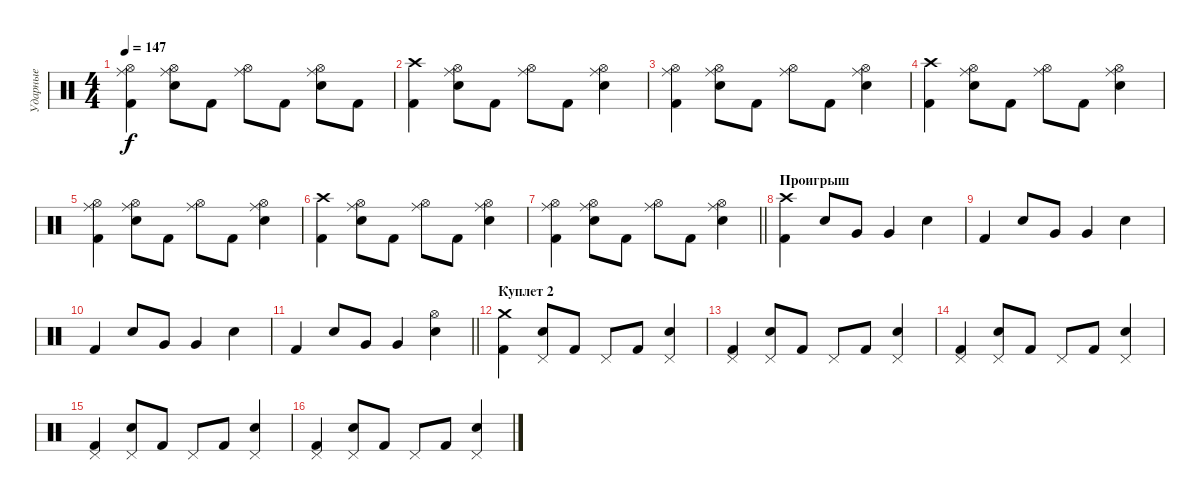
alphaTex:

\track ("Ударные" "Ударные") {instrument percussion}
\staff {score}
\articulation defaults
\ts (4 4)
\tempo 147
\clef neutral
\ks c
("Ride (middle)" "Hi-Hat (open)" "Kick (hit) 2").4{dy f} ("Ride (middle)" "Hi-Hat (open)" "Snare (hit) 2").8 "Kick (hit) 2".8 ("Ride (middle)" "Hi-Hat (open)").8 "Kick (hit) 2".8 ("Ride (middle)" "Hi-Hat (open)" "Snare (hit) 2").8 "Kick (hit) 2".8 |
("Crash high (hit)" "Kick (hit) 2").4 ("Ride (middle)" "Hi-Hat (open)" "Snare (hit) 2").8 "Kick (hit) 2".8 ("Ride (middle)" "Hi-Hat (open)").8 "Kick (hit) 2".8 ("Ride (middle)" "Hi-Hat (open)" "Snare (hit) 2").4 |
("Ride (middle)" "Hi-Hat (open)" "Kick (hit) 2").4 ("Ride (middle)" "Hi-Hat (open)" "Snare (hit) 2").8 "Kick (hit) 2".8 ("Ride (middle)" "Hi-Hat (open)").8 "Kick (hit) 2".8 ("Ride (middle)" "Hi-Hat (open)" "Snare (hit) 2").4 |
("Crash high (hit)" "Kick (hit) 2").4 ("Ride (middle)" "Hi-Hat (open)" "Snare (hit) 2").8 "Kick (hit) 2".8 ("Ride (middle)" "Hi-Hat (open)").8 "Kick (hit) 2".8 ("Ride (middle)" "Hi-Hat (open)" "Snare (hit) 2").4 |
("Ride (middle)" "Hi-Hat (open)" "Kick (hit) 2").4 ("Ride (middle)" "Hi-Hat (open)" "Snare (hit) 2").8 "Kick (hit) 2".8 ("Ride (middle)" "Hi-Hat (open)").8 "Kick (hit) 2".8 ("Ride (middle)" "Hi-Hat (open)" "Snare (hit) 2").4 |
("Crash high (hit)" "Kick (hit) 2").4 ("Ride (middle)" "Hi-Hat (open)" "Snare (hit) 2").8 "Kick (hit) 2".8 ("Ride (middle)" "Hi-Hat (open)").8 "Kick (hit) 2".8 ("Ride (middle)" "Hi-Hat (open)" "Snare (hit) 2").4 |
\barLineRight lightlight
("Ride (middle)" "Hi-Hat (open)" "Kick (hit) 2").4 ("Ride (middle)" "Hi-Hat (open)" "Snare (hit) 2").8 "Kick (hit) 2".8 ("Ride (middle)" "Hi-Hat (open)").8 "Kick (hit) 2".8 ("Ride (middle)" "Hi-Hat (open)" "Snare (hit) 2").4 |
\section ("" "Проигрыш")
("Crash high (hit)" "Kick (hit) 2").4 "Snare (hit) 2".8 "Very Low Tom (hit)".8 "Very Low Tom (hit)".4 "Snare (hit) 2".4 |
"Kick (hit) 2".4 "Snare (hit) 2".8 "Very Low Tom (hit)".8 "Very Low Tom (hit)".4 "Snare (hit) 2".4 |
"Kick (hit) 2".4 "Snare (hit) 2".8 "Very Low Tom (hit)".8 "Very Low Tom (hit)".4 "Snare (hit) 2".4 |
\barLineRight lightlight "Kick (hit) 2".4 "Snare (hit) 2".8 "Very Low Tom (hit)".8 "Very Low Tom (hit)".4
("Hi-Hat (open)" "Snare (hit) 2").4 |
\section ("" "Куплет 2")
("Crash medium (hit)" "Kick (hit) 2").4 ("Pedal Hi-Hat (hit)" "Snare (hit) 2").8 "Kick (hit) 2".8 "Pedal Hi-Hat (hit)".8 "Kick (hit) 2".8 ("Pedal Hi-Hat (hit)" "Snare (hit) 2").4 |
("Pedal Hi-Hat (hit)" "Kick (hit) 2").4 ("Pedal Hi-Hat (hit)" "Snare (hit) 2").8 "Kick (hit) 2".8 "Pedal Hi-Hat (hit)".8 "Kick (hit) 2".8 ("Pedal Hi-Hat (hit)" "Snare (hit) 2").4 |
("Pedal Hi-Hat (hit)" "Kick (hit) 2").4 ("Pedal Hi-Hat (hit)" "Snare (hit) 2").8 "Kick (hit) 2".8 "Pedal Hi-Hat (hit)".8 "Kick (hit) 2".8 ("Pedal Hi-Hat (hit)" "Snare (hit) 2").4 |
("Pedal Hi-Hat (hit)" "Kick (hit) 2").4 ("Pedal Hi-Hat (hit)" "Snare (hit) 2").8 "Kick (hit) 2".8 "Pedal Hi-Hat (hit)".8 "Kick (hit) 2".8 ("Pedal Hi-Hat (hit)" "Snare (hit) 2").4 |
("Pedal Hi-Hat (hit)" "Kick (hit) 2").4 ("Pedal Hi-Hat (hit)" "Snare (hit) 2").8 "Kick (hit) 2".8 "Pedal Hi-Hat (hit)".8 "Kick (hit) 2".8 ("Pedal Hi-Hat (hit)" "Snare (hit) 2").4
